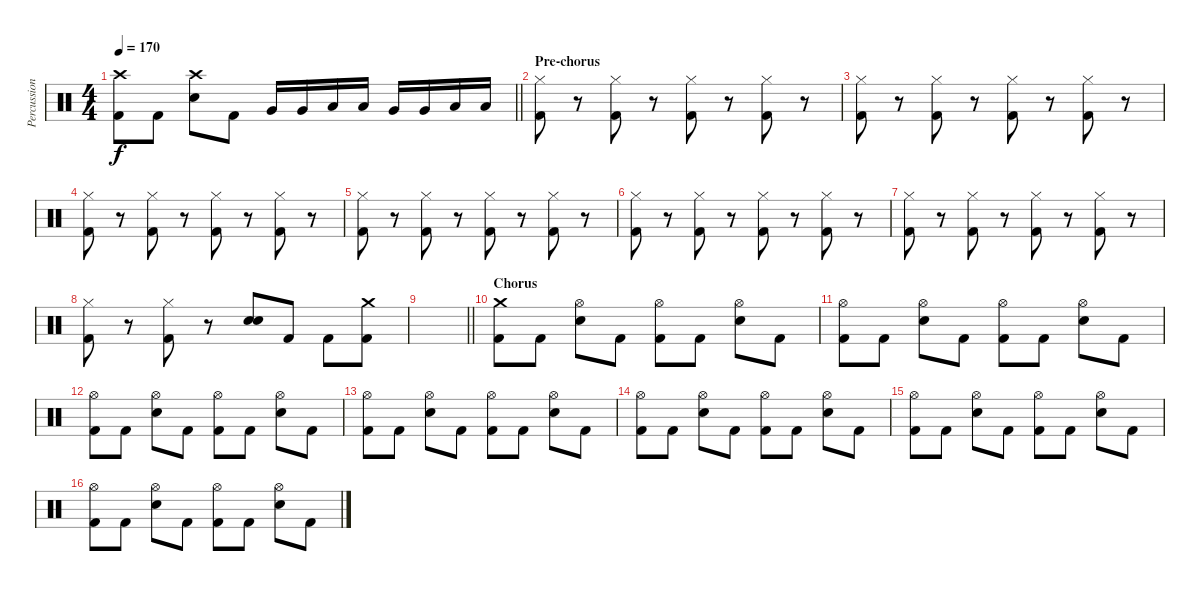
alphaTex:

\track ("Percussions" "Percussion") {instrument percussion}
\staff {score}
\articulation defaults
\ts (4 4)
\tempo 170
\clef neutral
\barLineRight lightlight
\ks c
("Crash high (hit)" "Kick (hit) 2").8{dy f} "Kick (hit) 2".8 ("Crash high (hit)" "Electric Snare (hit)").8 "Kick (hit) 2".8 "Very Low Tom (hit)".16 "Very Low Tom (hit)".16 "Low Floor Tom (hit)".16 "Low Floor Tom (hit)".16 "Very Low Tom (hit)".16 "Very Low Tom (hit)".16 "Low Floor Tom (hit)".16 "Low Floor Tom (hit)".16 |
\section ("" "Pre-chorus")
("Hi-Hat (closed)" "Kick (hit) 2").8 r.8 ("Hi-Hat (closed)" "Kick (hit) 2").8 r.8 ("Hi-Hat (closed)" "Kick (hit) 2").8 r.8 ("Hi-Hat (closed)" "Kick (hit) 2").8 r.8 |
("Hi-Hat (closed)" "Kick (hit) 2").8 r.8 ("Hi-Hat (closed)" "Kick (hit) 2").8 r.8 ("Hi-Hat (closed)" "Kick (hit) 2").8 r.8 ("Hi-Hat (closed)" "Kick (hit) 2").8 r.8 |
("Hi-Hat (closed)" "Kick (hit) 2").8 r.8 ("Hi-Hat (closed)" "Kick (hit) 2").8 r.8 ("Hi-Hat (closed)" "Kick (hit) 2").8 r.8 ("Hi-Hat (closed)" "Kick (hit) 2").8 r.8 |
("Hi-Hat (closed)" "Kick (hit) 2").8 r.8 ("Hi-Hat (closed)" "Kick (hit) 2").8 r.8 ("Hi-Hat (closed)" "Kick (hit) 2").8 r.8 ("Hi-Hat (closed)" "Kick (hit) 2").8 r.8 |
("Hi-Hat (closed)" "Kick (hit) 2").8 r.8 ("Hi-Hat (closed)" "Kick (hit) 2").8 r.8 ("Hi-Hat (closed)" "Kick (hit) 2").8 r.8 ("Hi-Hat (closed)" "Kick (hit) 2").8 r.8 |
("Hi-Hat (closed)" "Kick (hit) 2").8 r.8 ("Hi-Hat (closed)" "Kick (hit) 2").8 r.8 ("Hi-Hat (closed)" "Kick (hit) 2").8 r.8 ("Hi-Hat (closed)" "Kick (hit) 2").8 r.8 |
("Hi-Hat (closed)" "Kick (hit) 2").8 r.8 ("Hi-Hat (closed)" "Kick (hit) 2").8 r.8 ("Electric Snare (hit)" "Electric Snare (hit)").8 "Kick (hit) 2".8 "Kick (hit) 2".8 ("Crash medium (hit)" "Kick (hit) 2").8 |
\barLineRight lightlight
|
\section ("" "Chorus")
("Crash medium (hit)" "Kick (hit) 2").8 "Kick (hit) 2".8 ("Hi-Hat (open)" "Electric Snare (hit)").8 "Kick (hit) 2".8 ("Hi-Hat (open)" "Kick (hit) 2").8 "Kick (hit) 2".8 ("Hi-Hat (open)" "Electric Snare (hit)").8 "Kick (hit) 2".8 |
("Hi-Hat (open)" "Kick (hit) 2").8 "Kick (hit) 2".8 ("Hi-Hat (open)" "Electric Snare (hit)").8 "Kick (hit) 2".8 ("Hi-Hat (open)" "Kick (hit) 2").8 "Kick (hit) 2".8 ("Hi-Hat (open)" "Electric Snare (hit)").8 "Kick (hit) 2".8 |
("Hi-Hat (open)" "Kick (hit) 2").8 "Kick (hit) 2".8 ("Hi-Hat (open)" "Electric Snare (hit)").8 "Kick (hit) 2".8 ("Hi-Hat (open)" "Kick (hit) 2").8 "Kick (hit) 2".8 ("Hi-Hat (open)" "Electric Snare (hit)").8 "Kick (hit) 2".8 |
("Hi-Hat (open)" "Kick (hit) 2").8 "Kick (hit) 2".8 ("Hi-Hat (open)" "Electric Snare (hit)").8 "Kick (hit) 2".8 ("Hi-Hat (open)" "Kick (hit) 2").8 "Kick (hit) 2".8 ("Hi-Hat (open)" "Electric Snare (hit)").8 "Kick (hit) 2".8 |
("Hi-Hat (open)" "Kick (hit) 2").8 "Kick (hit) 2".8 ("Hi-Hat (open)" "Electric Snare (hit)").8 "Kick (hit) 2".8 ("Hi-Hat (open)" "Kick (hit) 2").8 "Kick (hit) 2".8 ("Hi-Hat (open)" "Electric Snare (hit)").8 "Kick (hit) 2".8 |
("Hi-Hat (open)" "Kick (hit) 2").8 "Kick (hit) 2".8 ("Hi-Hat (open)" "Electric Snare (hit)").8 "Kick (hit) 2".8 ("Hi-Hat (open)" "Kick (hit) 2").8 "Kick (hit) 2".8 ("Hi-Hat (open)" "Electric Snare (hit)").8 "Kick (hit) 2".8 |
("Hi-Hat (open)" "Kick (hit) 2").8 "Kick (hit) 2".8 ("Hi-Hat (open)" "Electric Snare (hit)").8 "Kick (hit) 2".8 ("Hi-Hat (open)" "Kick (hit) 2").8 "Kick (hit) 2".8 ("Hi-Hat (open)" "Electric Snare (hit)").8 "Kick (hit) 2".8
